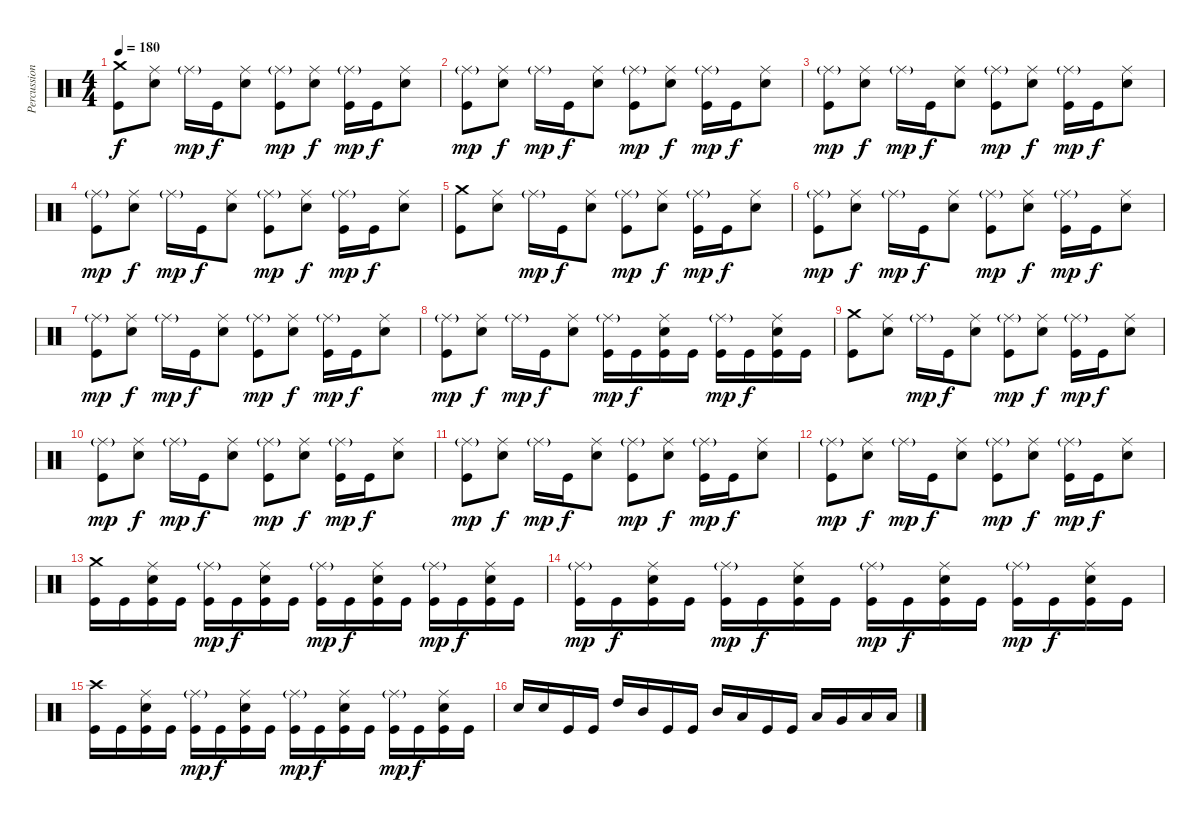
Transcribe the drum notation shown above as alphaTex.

\track ("Percussion" "Percussion") {instrument percussion}
\staff {score}
\articulation defaults
\ts (4 4)
\tempo 180
\clef neutral
\ks c
("Crash medium (hit)" "Kick (hit)").8{dy f} ("Ride (middle)" "Electric Snare (hit)").8 "Ride (middle)"{g}.16{dy mp} "Kick (hit)".16{dy f} ("Ride (middle)" "Electric Snare (hit)").8 ("Ride (middle)"{g} "Kick (hit)").8{dy mp} ("Ride (middle)" "Electric Snare (hit)").8{dy f} ("Ride (middle)"{g} "Kick (hit)").16{dy mp} "Kick (hit)".16{dy f} ("Ride (middle)" "Electric Snare (hit)").8 |
("Ride (middle)"{g} "Kick (hit)").8{dy mp} ("Ride (middle)" "Electric Snare (hit)").8{dy f} "Ride (middle)"{g}.16{dy mp} "Kick (hit)".16{dy f} ("Ride (middle)" "Electric Snare (hit)").8 ("Ride (middle)"{g} "Kick (hit)").8{dy mp} ("Ride (middle)" "Electric Snare (hit)").8{dy f} ("Ride (middle)"{g} "Kick (hit)").16{dy mp} "Kick (hit)".16{dy f} ("Ride (middle)" "Electric Snare (hit)").8 |
("Ride (middle)"{g} "Kick (hit)").8{dy mp} ("Ride (middle)" "Electric Snare (hit)").8{dy f} "Ride (middle)"{g}.16{dy mp} "Kick (hit)".16{dy f} ("Ride (middle)" "Electric Snare (hit)").8 ("Ride (middle)"{g} "Kick (hit)").8{dy mp} ("Ride (middle)" "Electric Snare (hit)").8{dy f} ("Ride (middle)"{g} "Kick (hit)").16{dy mp} "Kick (hit)".16{dy f} ("Ride (middle)" "Electric Snare (hit)").8 |
("Ride (middle)"{g} "Kick (hit)").8{dy mp} ("Ride (middle)" "Electric Snare (hit)").8{dy f} "Ride (middle)"{g}.16{dy mp} "Kick (hit)".16{dy f} ("Ride (middle)" "Electric Snare (hit)").8 ("Ride (middle)"{g} "Kick (hit)").8{dy mp} ("Ride (middle)" "Electric Snare (hit)").8{dy f} ("Ride (middle)"{g} "Kick (hit)").16{dy mp} "Kick (hit)".16{dy f} ("Ride (middle)" "Electric Snare (hit)").8 |
("Crash medium (hit)" "Kick (hit)").8 ("Ride (middle)" "Electric Snare (hit)").8 "Ride (middle)"{g}.16{dy mp} "Kick (hit)".16{dy f} ("Ride (middle)" "Electric Snare (hit)").8 ("Ride (middle)"{g} "Kick (hit)").8{dy mp} ("Ride (middle)" "Electric Snare (hit)").8{dy f} ("Ride (middle)"{g} "Kick (hit)").16{dy mp} "Kick (hit)".16{dy f} ("Ride (middle)" "Electric Snare (hit)").8 |
("Ride (middle)"{g} "Kick (hit)").8{dy mp} ("Ride (middle)" "Electric Snare (hit)").8{dy f} "Ride (middle)"{g}.16{dy mp} "Kick (hit)".16{dy f} ("Ride (middle)" "Electric Snare (hit)").8 ("Ride (middle)"{g} "Kick (hit)").8{dy mp} ("Ride (middle)" "Electric Snare (hit)").8{dy f} ("Ride (middle)"{g} "Kick (hit)").16{dy mp} "Kick (hit)".16{dy f} ("Ride (middle)" "Electric Snare (hit)").8 |
("Ride (middle)"{g} "Kick (hit)").8{dy mp} ("Ride (middle)" "Electric Snare (hit)").8{dy f} "Ride (middle)"{g}.16{dy mp} "Kick (hit)".16{dy f} ("Ride (middle)" "Electric Snare (hit)").8 ("Ride (middle)"{g} "Kick (hit)").8{dy mp} ("Ride (middle)" "Electric Snare (hit)").8{dy f} ("Ride (middle)"{g} "Kick (hit)").16{dy mp} "Kick (hit)".16{dy f} ("Ride (middle)" "Electric Snare (hit)").8 |
("Ride (middle)"{g} "Kick (hit)").8{dy mp} ("Ride (middle)" "Electric Snare (hit)").8{dy f} "Ride (middle)"{g}.16{dy mp} "Kick (hit)".16{dy f} ("Ride (middle)" "Electric Snare (hit)").8 ("Ride (middle)"{g} "Kick (hit)").16{dy mp} "Kick (hit)".16{dy f} ("Ride (middle)" "Electric Snare (hit)" "Kick (hit)").16 "Kick (hit)".16 ("Ride (middle)"{g} "Kick (hit)").16{dy mp} "Kick (hit)".16{dy f} ("Ride (middle)" "Electric Snare (hit)" "Kick (hit)").16 "Kick (hit)".16 |
("Crash medium (hit)" "Kick (hit)").8 ("Ride (middle)" "Electric Snare (hit)").8 "Ride (middle)"{g}.16{dy mp} "Kick (hit)".16{dy f} ("Ride (middle)" "Electric Snare (hit)").8 ("Ride (middle)"{g} "Kick (hit)").8{dy mp} ("Ride (middle)" "Electric Snare (hit)").8{dy f} ("Ride (middle)"{g} "Kick (hit)").16{dy mp} "Kick (hit)".16{dy f} ("Ride (middle)" "Electric Snare (hit)").8 |
("Ride (middle)"{g} "Kick (hit)").8{dy mp} ("Ride (middle)" "Electric Snare (hit)").8{dy f} "Ride (middle)"{g}.16{dy mp} "Kick (hit)".16{dy f} ("Ride (middle)" "Electric Snare (hit)").8 ("Ride (middle)"{g} "Kick (hit)").8{dy mp} ("Ride (middle)" "Electric Snare (hit)").8{dy f} ("Ride (middle)"{g} "Kick (hit)").16{dy mp} "Kick (hit)".16{dy f} ("Ride (middle)" "Electric Snare (hit)").8 |
("Ride (middle)"{g} "Kick (hit)").8{dy mp} ("Ride (middle)" "Electric Snare (hit)").8{dy f} "Ride (middle)"{g}.16{dy mp} "Kick (hit)".16{dy f} ("Ride (middle)" "Electric Snare (hit)").8 ("Ride (middle)"{g} "Kick (hit)").8{dy mp} ("Ride (middle)" "Electric Snare (hit)").8{dy f} ("Ride (middle)"{g} "Kick (hit)").16{dy mp} "Kick (hit)".16{dy f} ("Ride (middle)" "Electric Snare (hit)").8 |
("Ride (middle)"{g} "Kick (hit)").8{dy mp} ("Ride (middle)" "Electric Snare (hit)").8{dy f} "Ride (middle)"{g}.16{dy mp} "Kick (hit)".16{dy f} ("Ride (middle)" "Electric Snare (hit)").8 ("Ride (middle)"{g} "Kick (hit)").8{dy mp} ("Ride (middle)" "Electric Snare (hit)").8{dy f} ("Ride (middle)"{g} "Kick (hit)").16{dy mp} "Kick (hit)".16{dy f} ("Ride (middle)" "Electric Snare (hit)").8 |
("Crash medium (hit)" "Kick (hit)").16 "Kick (hit)".16 ("Ride (middle)" "Electric Snare (hit)" "Kick (hit)").16 "Kick (hit)".16 ("Ride (middle)"{g} "Kick (hit)").16{dy mp} "Kick (hit)".16{dy f} ("Ride (middle)" "Electric Snare (hit)" "Kick (hit)").16 "Kick (hit)".16 ("Ride (middle)"{g} "Kick (hit)").16{dy mp} "Kick (hit)".16{dy f} ("Ride (middle)" "Electric Snare (hit)" "Kick (hit)").16 "Kick (hit)".16 ("Ride (middle)"{g} "Kick (hit)").16{dy mp} "Kick (hit)".16{dy f} ("Ride (middle)" "Electric Snare (hit)" "Kick (hit)").16 "Kick (hit)".16 |
("Ride (middle)"{g} "Kick (hit)").16{dy mp} "Kick (hit)".16{dy f} ("Ride (middle)" "Electric Snare (hit)" "Kick (hit)").16 "Kick (hit)".16 ("Ride (middle)"{g} "Kick (hit)").16{dy mp} "Kick (hit)".16{dy f} ("Ride (middle)" "Electric Snare (hit)" "Kick (hit)").16 "Kick (hit)".16 ("Ride (middle)"{g} "Kick (hit)").16{dy mp} "Kick (hit)".16{dy f} ("Ride (middle)" "Electric Snare (hit)" "Kick (hit)").16 "Kick (hit)".16 ("Ride (middle)"{g} "Kick (hit)").16{dy mp} "Kick (hit)".16{dy f} ("Ride (middle)" "Electric Snare (hit)" "Kick (hit)").16 "Kick (hit)".16 |
("Crash high (hit)" "Kick (hit)").16 "Kick (hit)".16 ("Ride (middle)" "Electric Snare (hit)" "Kick (hit)").16 "Kick (hit)".16 ("Ride (middle)"{g} "Kick (hit)").16{dy mp} "Kick (hit)".16{dy f} ("Ride (middle)" "Electric Snare (hit)" "Kick (hit)").16 "Kick (hit)".16 ("Ride (middle)"{g} "Kick (hit)").16{dy mp} "Kick (hit)".16{dy f} ("Ride (middle)" "Electric Snare (hit)" "Kick (hit)").16 "Kick (hit)".16 ("Ride (middle)"{g} "Kick (hit)").16{dy mp} "Kick (hit)".16{dy f} ("Ride (middle)" "Electric Snare (hit)" "Kick (hit)").16 "Kick (hit)".16 |
"Electric Snare (hit)".16 "Electric Snare (hit)".16 "Kick (hit)".16 "Kick (hit)".16 "High Tom (hit)".16 "Mid Tom (hit)".16 "Kick (hit)".16 "Kick (hit)".16 "Mid Tom (hit)".16 "Low Tom (hit)".16 "Kick (hit)".16 "Kick (hit)".16 "Low Tom (hit)".16 "Very Low Tom (hit)".16 "Low Floor Tom (hit)".16 "Low Floor Tom (hit)".16
